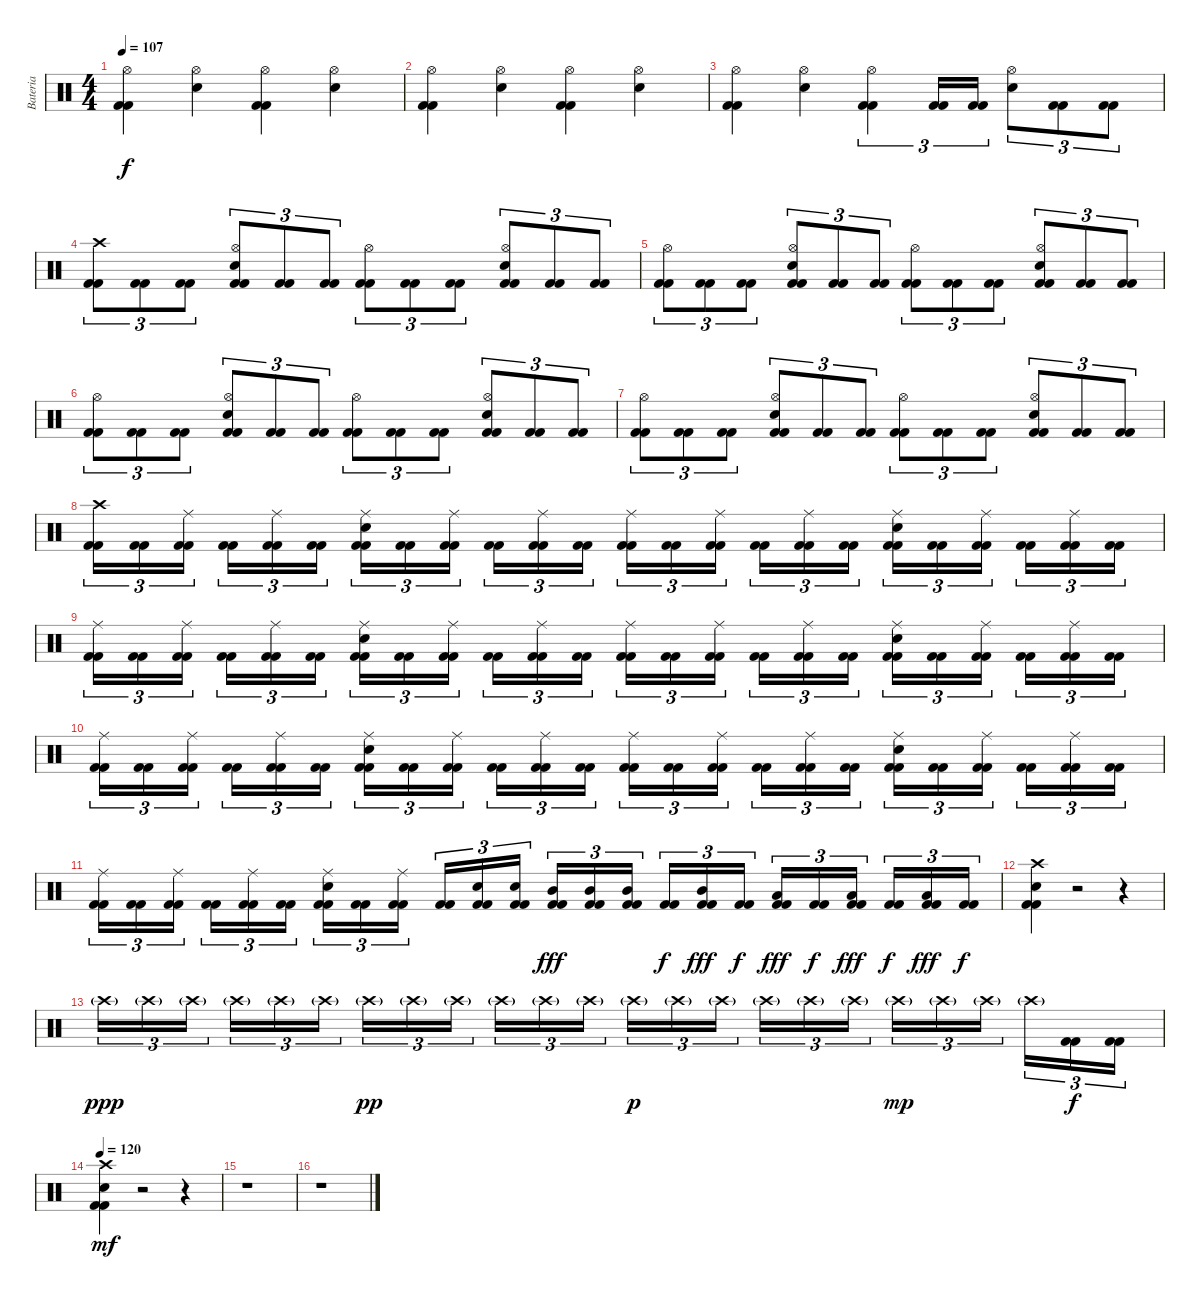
\track ("Bateria" "Bateria") {instrument percussion}
\staff {score}
\articulation defaults
\ts (4 4)
\tempo 107
\clef neutral
\ks c
("Kick (hit) 2" "Kick (hit) 2" "Hi-Hat (open)").4{dy f} ("Snare (hit) 2" "Hi-Hat (open)").4 ("Kick (hit) 2" "Kick (hit) 2" "Hi-Hat (open)").4 ("Snare (hit) 2" "Hi-Hat (open)").4 |
("Kick (hit) 2" "Kick (hit) 2" "Hi-Hat (open)").4 ("Snare (hit) 2" "Hi-Hat (open)").4 ("Kick (hit) 2" "Kick (hit) 2" "Hi-Hat (open)").4 ("Snare (hit) 2" "Hi-Hat (open)").4 |
("Kick (hit) 2" "Kick (hit) 2" "Hi-Hat (open)").4 ("Snare (hit) 2" "Hi-Hat (open)").4 ("Kick (hit) 2" "Kick (hit) 2" "Hi-Hat (open)").4{tu (3 2)} ("Kick (hit) 2" "Kick (hit) 2").16{tu (3 2)} ("Kick (hit) 2" "Kick (hit) 2").16{tu (3 2)} ("Snare (hit) 2" "Hi-Hat (open)").8{tu (3 2)} ("Kick (hit) 2" "Kick (hit) 2").8{tu (3 2)} ("Kick (hit) 2" "Kick (hit) 2").8{tu (3 2)} |
("Kick (hit) 2" "Kick (hit) 2" "Crash high (hit)").8{tu (3 2)} ("Kick (hit) 2" "Kick (hit) 2").8{tu (3 2)} ("Kick (hit) 2" "Kick (hit) 2").8{tu (3 2)} ("Kick (hit) 2" "Kick (hit) 2" "Snare (hit) 2" "Hi-Hat (open)").8{tu (3 2)} ("Kick (hit) 2" "Kick (hit) 2").8{tu (3 2)} ("Kick (hit) 2" "Kick (hit) 2").8{tu (3 2)} ("Kick (hit) 2" "Kick (hit) 2" "Hi-Hat (open)").8{tu (3 2)} ("Kick (hit) 2" "Kick (hit) 2").8{tu (3 2)} ("Kick (hit) 2" "Kick (hit) 2").8{tu (3 2)} ("Kick (hit) 2" "Kick (hit) 2" "Snare (hit) 2" "Hi-Hat (open)").8{tu (3 2)} ("Kick (hit) 2" "Kick (hit) 2").8{tu (3 2)} ("Kick (hit) 2" "Kick (hit) 2").8{tu (3 2)} |
("Kick (hit) 2" "Kick (hit) 2" "Hi-Hat (open)").8{tu (3 2)} ("Kick (hit) 2" "Kick (hit) 2").8{tu (3 2)} ("Kick (hit) 2" "Kick (hit) 2").8{tu (3 2)} ("Kick (hit) 2" "Kick (hit) 2" "Snare (hit) 2" "Hi-Hat (open)").8{tu (3 2)} ("Kick (hit) 2" "Kick (hit) 2").8{tu (3 2)} ("Kick (hit) 2" "Kick (hit) 2").8{tu (3 2)} ("Kick (hit) 2" "Kick (hit) 2" "Hi-Hat (open)").8{tu (3 2)} ("Kick (hit) 2" "Kick (hit) 2").8{tu (3 2)} ("Kick (hit) 2" "Kick (hit) 2").8{tu (3 2)} ("Kick (hit) 2" "Kick (hit) 2" "Snare (hit) 2" "Hi-Hat (open)").8{tu (3 2)} ("Kick (hit) 2" "Kick (hit) 2").8{tu (3 2)} ("Kick (hit) 2" "Kick (hit) 2").8{tu (3 2)} |
("Kick (hit) 2" "Kick (hit) 2" "Hi-Hat (open)").8{tu (3 2)} ("Kick (hit) 2" "Kick (hit) 2").8{tu (3 2)} ("Kick (hit) 2" "Kick (hit) 2").8{tu (3 2)} ("Kick (hit) 2" "Kick (hit) 2" "Snare (hit) 2" "Hi-Hat (open)").8{tu (3 2)} ("Kick (hit) 2" "Kick (hit) 2").8{tu (3 2)} ("Kick (hit) 2" "Kick (hit) 2").8{tu (3 2)} ("Kick (hit) 2" "Kick (hit) 2" "Hi-Hat (open)").8{tu (3 2)} ("Kick (hit) 2" "Kick (hit) 2").8{tu (3 2)} ("Kick (hit) 2" "Kick (hit) 2").8{tu (3 2)} ("Kick (hit) 2" "Kick (hit) 2" "Snare (hit) 2" "Hi-Hat (open)").8{tu (3 2)} ("Kick (hit) 2" "Kick (hit) 2").8{tu (3 2)} ("Kick (hit) 2" "Kick (hit) 2").8{tu (3 2)} |
("Kick (hit) 2" "Kick (hit) 2" "Hi-Hat (open)").8{tu (3 2)} ("Kick (hit) 2" "Kick (hit) 2").8{tu (3 2)} ("Kick (hit) 2" "Kick (hit) 2").8{tu (3 2)} ("Kick (hit) 2" "Kick (hit) 2" "Snare (hit) 2" "Hi-Hat (open)").8{tu (3 2)} ("Kick (hit) 2" "Kick (hit) 2").8{tu (3 2)} ("Kick (hit) 2" "Kick (hit) 2").8{tu (3 2)} ("Kick (hit) 2" "Kick (hit) 2" "Hi-Hat (open)").8{tu (3 2)} ("Kick (hit) 2" "Kick (hit) 2").8{tu (3 2)} ("Kick (hit) 2" "Kick (hit) 2").8{tu (3 2)} ("Kick (hit) 2" "Snare (hit) 2" "Kick (hit) 2" "Hi-Hat (open)").8{tu (3 2)} ("Kick (hit) 2" "Kick (hit) 2").8{tu (3 2)} ("Kick (hit) 2" "Kick (hit) 2").8{tu (3 2)} |
("Kick (hit) 2" "Kick (hit) 2" "Crash high (hit)").16{tu (3 2)} ("Kick (hit) 2" "Kick (hit) 2").16{tu (3 2)} ("Kick (hit) 2" "Kick (hit) 2" "Ride (middle)").16{tu (3 2)} ("Kick (hit) 2" "Kick (hit) 2").16{tu (3 2)} ("Kick (hit) 2" "Kick (hit) 2" "Ride (middle)").16{tu (3 2)} ("Kick (hit) 2" "Kick (hit) 2").16{tu (3 2)} ("Kick (hit) 2" "Kick (hit) 2" "Snare (hit) 2" "Ride (middle)").16{tu (3 2)} ("Kick (hit) 2" "Kick (hit) 2").16{tu (3 2)} ("Kick (hit) 2" "Kick (hit) 2" "Ride (middle)").16{tu (3 2)} ("Kick (hit) 2" "Kick (hit) 2").16{tu (3 2)} ("Kick (hit) 2" "Kick (hit) 2" "Ride (middle)").16{tu (3 2)} ("Kick (hit) 2" "Kick (hit) 2").16{tu (3 2)} ("Kick (hit) 2" "Kick (hit) 2" "Ride (middle)").16{tu (3 2)} ("Kick (hit) 2" "Kick (hit) 2").16{tu (3 2)} ("Kick (hit) 2" "Kick (hit) 2" "Ride (middle)").16{tu (3 2)} ("Kick (hit) 2" "Kick (hit) 2").16{tu (3 2)} ("Kick (hit) 2" "Kick (hit) 2" "Ride (middle)").16{tu (3 2)} ("Kick (hit) 2" "Kick (hit) 2").16{tu (3 2)} ("Kick (hit) 2" "Kick (hit) 2" "Snare (hit) 2" "Ride (middle)").16{tu (3 2)} ("Kick (hit) 2" "Kick (hit) 2").16{tu (3 2)} ("Kick (hit) 2" "Kick (hit) 2" "Ride (middle)").16{tu (3 2)} ("Kick (hit) 2" "Kick (hit) 2").16{tu (3 2)} ("Kick (hit) 2" "Kick (hit) 2" "Ride (middle)").16{tu (3 2)} ("Kick (hit) 2" "Kick (hit) 2").16{tu (3 2)} |
("Kick (hit) 2" "Kick (hit) 2" "Ride (middle)").16{tu (3 2)} ("Kick (hit) 2" "Kick (hit) 2").16{tu (3 2)} ("Kick (hit) 2" "Kick (hit) 2" "Ride (middle)").16{tu (3 2)} ("Kick (hit) 2" "Kick (hit) 2").16{tu (3 2)} ("Kick (hit) 2" "Kick (hit) 2" "Ride (middle)").16{tu (3 2)} ("Kick (hit) 2" "Kick (hit) 2").16{tu (3 2)} ("Kick (hit) 2" "Kick (hit) 2" "Snare (hit) 2" "Ride (middle)").16{tu (3 2)} ("Kick (hit) 2" "Kick (hit) 2").16{tu (3 2)} ("Kick (hit) 2" "Kick (hit) 2" "Ride (middle)").16{tu (3 2)} ("Kick (hit) 2" "Kick (hit) 2").16{tu (3 2)} ("Kick (hit) 2" "Kick (hit) 2" "Ride (middle)").16{tu (3 2)} ("Kick (hit) 2" "Kick (hit) 2").16{tu (3 2)} ("Kick (hit) 2" "Kick (hit) 2" "Ride (middle)").16{tu (3 2)} ("Kick (hit) 2" "Kick (hit) 2").16{tu (3 2)} ("Kick (hit) 2" "Kick (hit) 2" "Ride (middle)").16{tu (3 2)} ("Kick (hit) 2" "Kick (hit) 2").16{tu (3 2)} ("Kick (hit) 2" "Kick (hit) 2" "Ride (middle)").16{tu (3 2)} ("Kick (hit) 2" "Kick (hit) 2").16{tu (3 2)} ("Kick (hit) 2" "Kick (hit) 2" "Snare (hit) 2" "Ride (middle)").16{tu (3 2)} ("Kick (hit) 2" "Kick (hit) 2").16{tu (3 2)} ("Kick (hit) 2" "Kick (hit) 2" "Ride (middle)").16{tu (3 2)} ("Kick (hit) 2" "Kick (hit) 2").16{tu (3 2)} ("Kick (hit) 2" "Kick (hit) 2" "Ride (middle)").16{tu (3 2)} ("Kick (hit) 2" "Kick (hit) 2").16{tu (3 2)} |
("Kick (hit) 2" "Kick (hit) 2" "Ride (middle)").16{tu (3 2)} ("Kick (hit) 2" "Kick (hit) 2").16{tu (3 2)} ("Kick (hit) 2" "Kick (hit) 2" "Ride (middle)").16{tu (3 2)} ("Kick (hit) 2" "Kick (hit) 2").16{tu (3 2)} ("Kick (hit) 2" "Kick (hit) 2" "Ride (middle)").16{tu (3 2)} ("Kick (hit) 2" "Kick (hit) 2").16{tu (3 2)} ("Kick (hit) 2" "Kick (hit) 2" "Snare (hit) 2" "Ride (middle)").16{tu (3 2)} ("Kick (hit) 2" "Kick (hit) 2").16{tu (3 2)} ("Kick (hit) 2" "Kick (hit) 2" "Ride (middle)").16{tu (3 2)} ("Kick (hit) 2" "Kick (hit) 2").16{tu (3 2)} ("Kick (hit) 2" "Kick (hit) 2" "Ride (middle)").16{tu (3 2)} ("Kick (hit) 2" "Kick (hit) 2").16{tu (3 2)} ("Kick (hit) 2" "Kick (hit) 2" "Ride (middle)").16{tu (3 2)} ("Kick (hit) 2" "Kick (hit) 2").16{tu (3 2)} ("Kick (hit) 2" "Kick (hit) 2" "Ride (middle)").16{tu (3 2)} ("Kick (hit) 2" "Kick (hit) 2").16{tu (3 2)} ("Kick (hit) 2" "Kick (hit) 2" "Ride (middle)").16{tu (3 2)} ("Kick (hit) 2" "Kick (hit) 2").16{tu (3 2)} ("Kick (hit) 2" "Kick (hit) 2" "Snare (hit) 2" "Ride (middle)").16{tu (3 2)} ("Kick (hit) 2" "Kick (hit) 2").16{tu (3 2)} ("Kick (hit) 2" "Kick (hit) 2" "Ride (middle)").16{tu (3 2)} ("Kick (hit) 2" "Kick (hit) 2").16{tu (3 2)} ("Kick (hit) 2" "Kick (hit) 2" "Ride (middle)").16{tu (3 2)} ("Kick (hit) 2" "Kick (hit) 2").16{tu (3 2)} |
("Kick (hit) 2" "Kick (hit) 2" "Ride (middle)").16{tu (3 2)} ("Kick (hit) 2" "Kick (hit) 2").16{tu (3 2)} ("Kick (hit) 2" "Kick (hit) 2" "Ride (middle)").16{tu (3 2)} ("Kick (hit) 2" "Kick (hit) 2").16{tu (3 2)} ("Kick (hit) 2" "Kick (hit) 2" "Ride (middle)").16{tu (3 2)} ("Kick (hit) 2" "Kick (hit) 2").16{tu (3 2)} ("Kick (hit) 2" "Kick (hit) 2" "Snare (hit) 2" "Ride (middle)").16{tu (3 2)} ("Kick (hit) 2" "Kick (hit) 2").16{tu (3 2)} ("Kick (hit) 2" "Kick (hit) 2" "Ride (middle)").16{tu (3 2)} ("Kick (hit) 2" "Kick (hit) 2").16{tu (3 2)} ("Kick (hit) 2" "Kick (hit) 2" "Snare (hit) 2").16{tu (3 2)} ("Kick (hit) 2" "Kick (hit) 2" "Snare (hit) 2").16{tu (3 2)} ("Kick (hit) 2" "Kick (hit) 2" "Mid Tom (hit)").16{tu (3 2) dy fff} ("Kick (hit) 2" "Kick (hit) 2" "Mid Tom (hit)").16{tu (3 2)} ("Kick (hit) 2" "Kick (hit) 2" "Mid Tom (hit)").16{tu (3 2)} ("Kick (hit) 2" "Kick (hit) 2").16{tu (3 2) dy f} ("Kick (hit) 2" "Kick (hit) 2" "Mid Tom (hit)").16{tu (3 2) dy fff} ("Kick (hit) 2" "Kick (hit) 2").16{tu (3 2) dy f} ("Kick (hit) 2" "Kick (hit) 2" "Low Tom (hit)").16{tu (3 2) dy fff} ("Kick (hit) 2" "Kick (hit) 2").16{tu (3 2) dy f} ("Kick (hit) 2" "Kick (hit) 2" "Low Tom (hit)").16{tu (3 2) dy fff} ("Kick (hit) 2" "Kick (hit) 2").16{tu (3 2) dy f} ("Kick (hit) 2" "Kick (hit) 2" "Low Tom (hit)").16{tu (3 2) dy fff} ("Kick (hit) 2" "Kick (hit) 2").16{tu (3 2) dy f} |
("Kick (hit) 2" "Kick (hit) 2" "Snare (hit) 2" "Crash high (hit)").4 r.2 r.4 |
"Crash high (hit)"{g}.16{tu (3 2) dy ppp} "Crash high (hit)"{g}.16{tu (3 2)} "Crash high (hit)"{g}.16{tu (3 2)} "Crash high (hit)"{g}.16{tu (3 2)} "Crash high (hit)"{g}.16{tu (3 2)} "Crash high (hit)"{g}.16{tu (3 2)} "Crash high (hit)"{g}.16{tu (3 2) dy pp} "Crash high (hit)"{g}.16{tu (3 2)} "Crash high (hit)"{g}.16{tu (3 2)} "Crash high (hit)"{g}.16{tu (3 2)} "Crash high (hit)"{g}.16{tu (3 2)} "Crash high (hit)"{g}.16{tu (3 2)} "Crash high (hit)"{g}.16{tu (3 2) dy p} "Crash high (hit)"{g}.16{tu (3 2)} "Crash high (hit)"{g}.16{tu (3 2)} "Crash high (hit)"{g}.16{tu (3 2)} "Crash high (hit)"{g}.16{tu (3 2)} "Crash high (hit)"{g}.16{tu (3 2)} "Crash high (hit)"{g}.16{tu (3 2) dy mp} "Crash high (hit)"{g}.16{tu (3 2)} "Crash high (hit)"{g}.16{tu (3 2)} "Crash high (hit)"{g}.16{tu (3 2)} ("Kick (hit) 2" "Kick (hit) 2").16{tu (3 2) dy f} ("Kick (hit) 2" "Kick (hit) 2").16{tu (3 2)} |
\tempo 120
("Kick (hit) 2" "Kick (hit) 2" "Snare (hit) 2" "Crash high (hit)").4{dy mf} r.2 r.4 |
r.1 |
r.1
